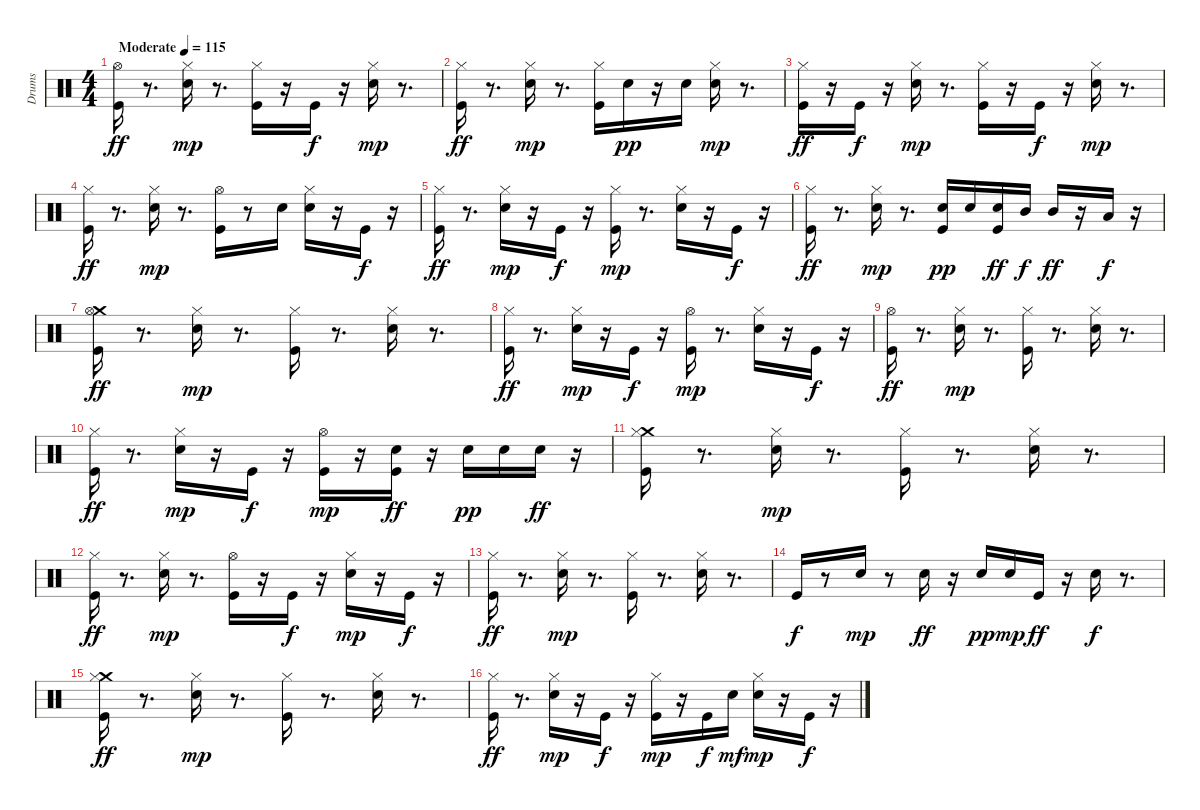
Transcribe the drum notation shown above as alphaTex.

\track ("Drums" "Drums") {instrument percussion}
\staff {score}
\articulation defaults
\ts (4 4)
\tempo (115 "Moderate")
\clef neutral
\ks c
("Kick (hit)" "Hi-Hat (open)").16{dy ff} r.8{d} ("Electric Snare (hit)" "Hi-Hat (closed)").16{dy mp} r.8{d} ("Kick (hit)" "Hi-Hat (closed)").16 r.16 "Kick (hit)".16{dy f} r.16 ("Electric Snare (hit)" "Hi-Hat (closed)").16{dy mp} r.8{d} |
("Kick (hit)" "Hi-Hat (closed)").16{dy ff} r.8{d} ("Electric Snare (hit)" "Hi-Hat (closed)").16{dy mp} r.8{d} ("Kick (hit)" "Hi-Hat (closed)").16 "Electric Snare (hit)".16{dy pp} r.16 "Electric Snare (hit)".16 ("Electric Snare (hit)" "Hi-Hat (closed)").16{dy mp} r.8{d} |
("Kick (hit)" "Hi-Hat (closed)").16{dy ff} r.16 "Kick (hit)".16{dy f} r.16 ("Electric Snare (hit)" "Hi-Hat (closed)").16{dy mp} r.8{d} ("Kick (hit)" "Hi-Hat (closed)").16 r.16 "Kick (hit)".16{dy f} r.16 ("Electric Snare (hit)" "Hi-Hat (closed)").16{dy mp} r.8{d} |
("Kick (hit)" "Hi-Hat (closed)").16{dy ff} r.8{d} ("Electric Snare (hit)" "Hi-Hat (closed)").16{dy mp} r.8{d} ("Kick (hit)" "Hi-Hat (open)").16 r.8 "Electric Snare (hit)".16 ("Electric Snare (hit)" "Hi-Hat (closed)").16 r.16 "Kick (hit)".16{dy f} r.16 |
("Kick (hit)" "Hi-Hat (closed)").16{dy ff} r.8{d} ("Electric Snare (hit)" "Hi-Hat (closed)").16{dy mp} r.16 "Kick (hit)".16{dy f} r.16 ("Kick (hit)" "Hi-Hat (closed)").16{dy mp} r.8{d} ("Electric Snare (hit)" "Hi-Hat (closed)").16 r.16 "Kick (hit)".16{dy f} r.16 |
("Kick (hit)" "Hi-Hat (closed)").16{dy ff} r.8{d} ("Electric Snare (hit)" "Hi-Hat (closed)").16{dy mp} r.8{d} ("Kick (hit)" "Electric Snare (hit)").16{dy pp} "Electric Snare (hit)".16 ("Kick (hit)" "Electric Snare (hit)").16{dy ff} "Mid Tom (hit)".16{dy f} "Mid Tom (hit)".16{dy ff} r.16 "Low Tom (hit)".16{dy f} r.16 |
("Crash medium (hit)" "Kick (hit)" "Hi-Hat (open)").16{dy ff} r.8{d} ("Electric Snare (hit)" "Hi-Hat (closed)").16{dy mp} r.8{d} ("Kick (hit)" "Hi-Hat (closed)").16 r.8{d} ("Electric Snare (hit)" "Hi-Hat (closed)").16 r.8{d} |
("Kick (hit)" "Hi-Hat (closed)").16{dy ff} r.8{d} ("Electric Snare (hit)" "Hi-Hat (closed)").16{dy mp} r.16 "Kick (hit)".16{dy f} r.16 ("Kick (hit)" "Hi-Hat (open)").16{dy mp} r.8{d} ("Electric Snare (hit)" "Hi-Hat (closed)").16 r.16 "Kick (hit)".16{dy f} r.16 |
("Kick (hit)" "Hi-Hat (open)").16{dy ff} r.8{d} ("Electric Snare (hit)" "Hi-Hat (closed)").16{dy mp} r.8{d} ("Kick (hit)" "Hi-Hat (closed)").16 r.8{d} ("Electric Snare (hit)" "Hi-Hat (closed)").16 r.8{d} |
("Kick (hit)" "Hi-Hat (closed)").16{dy ff} r.8{d} ("Electric Snare (hit)" "Hi-Hat (closed)").16{dy mp} r.16 "Kick (hit)".16{dy f} r.16 ("Kick (hit)" "Hi-Hat (open)").16{dy mp} r.16 ("Kick (hit)" "Electric Snare (hit)").16{dy ff} r.16 "Electric Snare (hit)".16{dy pp} "Electric Snare (hit)".16 "Electric Snare (hit)".16{dy ff} r.16 |
("Crash medium (hit)" "Kick (hit)" "Hi-Hat (closed)").16 r.8{d} ("Electric Snare (hit)" "Hi-Hat (closed)").16{dy mp} r.8{d} ("Kick (hit)" "Hi-Hat (closed)").16 r.8{d} ("Electric Snare (hit)" "Hi-Hat (closed)").16 r.8{d} |
("Kick (hit)" "Hi-Hat (closed)").16{dy ff} r.8{d} ("Electric Snare (hit)" "Hi-Hat (closed)").16{dy mp} r.8{d} ("Kick (hit)" "Hi-Hat (open)").16 r.16 "Kick (hit)".16{dy f} r.16 ("Electric Snare (hit)" "Hi-Hat (closed)").16{dy mp} r.16 "Kick (hit)".16{dy f} r.16 |
("Kick (hit)" "Hi-Hat (closed)").16{dy ff} r.8{d} ("Electric Snare (hit)" "Hi-Hat (closed)").16{dy mp} r.8{d} ("Kick (hit)" "Hi-Hat (closed)").16 r.8{d} ("Electric Snare (hit)" "Hi-Hat (closed)").16 r.8{d} |
"Kick (hit)".16{dy f} r.8 "Electric Snare (hit)".16{dy mp} r.8 "Electric Snare (hit)".16{dy ff} r.16 "Electric Snare (hit)".16{dy pp} "Electric Snare (hit)".16{dy mp} "Kick (hit)".16{dy ff} r.16 "Electric Snare (hit)".16{dy f} r.8{d} |
("Crash medium (hit)" "Kick (hit)" "Hi-Hat (closed)").16{dy ff} r.8{d} ("Electric Snare (hit)" "Hi-Hat (closed)").16{dy mp} r.8{d} ("Kick (hit)" "Hi-Hat (closed)").16 r.8{d} ("Electric Snare (hit)" "Hi-Hat (closed)").16 r.8{d} |
("Kick (hit)" "Hi-Hat (closed)").16{dy ff} r.8{d} ("Electric Snare (hit)" "Hi-Hat (closed)").16{dy mp} r.16 "Kick (hit)".16{dy f} r.16 ("Kick (hit)" "Hi-Hat (closed)").16{dy mp} r.16 "Kick (hit)".16{dy f} "Electric Snare (hit)".16{dy mf} ("Electric Snare (hit)" "Hi-Hat (closed)").16{dy mp} r.16 "Kick (hit)".16{dy f} r.16
